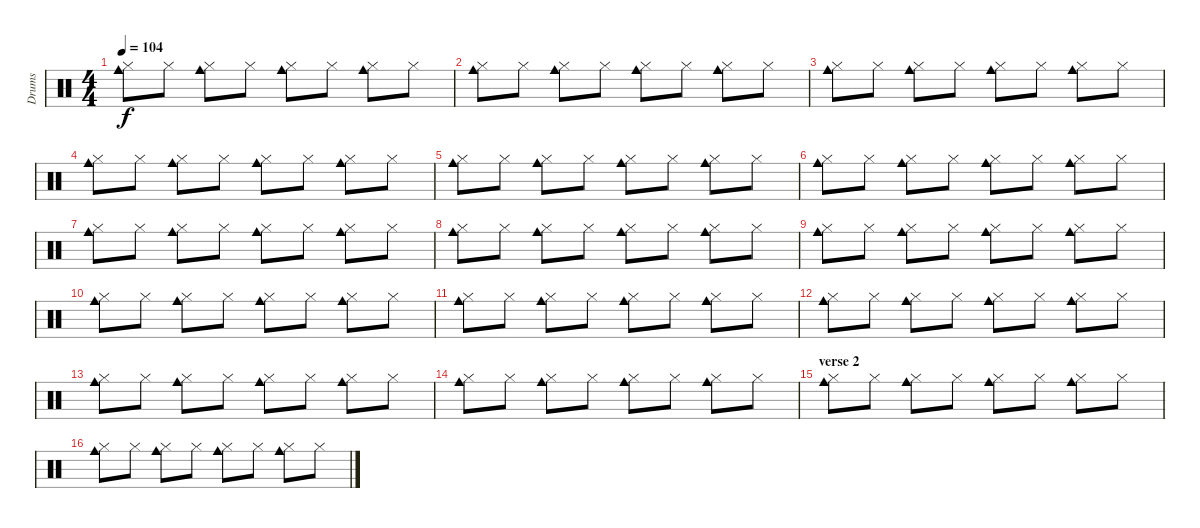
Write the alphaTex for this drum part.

\track ("Drums" "Drums") {instrument percussion}
\staff {score}
\articulation defaults
\ts (4 4)
\tempo 104
\clef neutral
\ks c
("Cowbell medium (hit)" "Hi-Hat (closed)").8{dy f} "Hi-Hat (closed)".8 ("Cowbell medium (hit)" "Hi-Hat (closed)").8 "Hi-Hat (closed)".8 ("Cowbell medium (hit)" "Hi-Hat (closed)").8 "Hi-Hat (closed)".8 ("Cowbell medium (hit)" "Hi-Hat (closed)").8 "Hi-Hat (closed)".8 |
("Cowbell medium (hit)" "Hi-Hat (closed)").8 "Hi-Hat (closed)".8 ("Cowbell medium (hit)" "Hi-Hat (closed)").8 "Hi-Hat (closed)".8 ("Cowbell medium (hit)" "Hi-Hat (closed)").8 "Hi-Hat (closed)".8 ("Cowbell medium (hit)" "Hi-Hat (closed)").8 "Hi-Hat (closed)".8 |
("Cowbell medium (hit)" "Hi-Hat (closed)").8 "Hi-Hat (closed)".8 ("Cowbell medium (hit)" "Hi-Hat (closed)").8 "Hi-Hat (closed)".8 ("Cowbell medium (hit)" "Hi-Hat (closed)").8 "Hi-Hat (closed)".8 ("Cowbell medium (hit)" "Hi-Hat (closed)").8 "Hi-Hat (closed)".8 |
("Cowbell medium (hit)" "Hi-Hat (closed)").8 "Hi-Hat (closed)".8 ("Cowbell medium (hit)" "Hi-Hat (closed)").8 "Hi-Hat (closed)".8 ("Cowbell medium (hit)" "Hi-Hat (closed)").8 "Hi-Hat (closed)".8 ("Cowbell medium (hit)" "Hi-Hat (closed)").8 "Hi-Hat (closed)".8 |
("Cowbell medium (hit)" "Hi-Hat (closed)").8 "Hi-Hat (closed)".8 ("Cowbell medium (hit)" "Hi-Hat (closed)").8 "Hi-Hat (closed)".8 ("Cowbell medium (hit)" "Hi-Hat (closed)").8 "Hi-Hat (closed)".8 ("Cowbell medium (hit)" "Hi-Hat (closed)").8 "Hi-Hat (closed)".8 |
("Cowbell medium (hit)" "Hi-Hat (closed)").8 "Hi-Hat (closed)".8 ("Cowbell medium (hit)" "Hi-Hat (closed)").8 "Hi-Hat (closed)".8 ("Cowbell medium (hit)" "Hi-Hat (closed)").8 "Hi-Hat (closed)".8 ("Cowbell medium (hit)" "Hi-Hat (closed)").8 "Hi-Hat (closed)".8 |
("Cowbell medium (hit)" "Hi-Hat (closed)").8 "Hi-Hat (closed)".8 ("Cowbell medium (hit)" "Hi-Hat (closed)").8 "Hi-Hat (closed)".8 ("Cowbell medium (hit)" "Hi-Hat (closed)").8 "Hi-Hat (closed)".8 ("Cowbell medium (hit)" "Hi-Hat (closed)").8 "Hi-Hat (closed)".8 |
("Cowbell medium (hit)" "Hi-Hat (closed)").8 "Hi-Hat (closed)".8 ("Cowbell medium (hit)" "Hi-Hat (closed)").8 "Hi-Hat (closed)".8 ("Cowbell medium (hit)" "Hi-Hat (closed)").8 "Hi-Hat (closed)".8 ("Cowbell medium (hit)" "Hi-Hat (closed)").8 "Hi-Hat (closed)".8 |
("Cowbell medium (hit)" "Hi-Hat (closed)").8 "Hi-Hat (closed)".8 ("Cowbell medium (hit)" "Hi-Hat (closed)").8 "Hi-Hat (closed)".8 ("Cowbell medium (hit)" "Hi-Hat (closed)").8 "Hi-Hat (closed)".8 ("Cowbell medium (hit)" "Hi-Hat (closed)").8 "Hi-Hat (closed)".8 |
("Cowbell medium (hit)" "Hi-Hat (closed)").8 "Hi-Hat (closed)".8 ("Cowbell medium (hit)" "Hi-Hat (closed)").8 "Hi-Hat (closed)".8 ("Cowbell medium (hit)" "Hi-Hat (closed)").8 "Hi-Hat (closed)".8 ("Cowbell medium (hit)" "Hi-Hat (closed)").8 "Hi-Hat (closed)".8 |
("Cowbell medium (hit)" "Hi-Hat (closed)").8 "Hi-Hat (closed)".8 ("Cowbell medium (hit)" "Hi-Hat (closed)").8 "Hi-Hat (closed)".8 ("Cowbell medium (hit)" "Hi-Hat (closed)").8 "Hi-Hat (closed)".8 ("Cowbell medium (hit)" "Hi-Hat (closed)").8 "Hi-Hat (closed)".8 |
("Cowbell medium (hit)" "Hi-Hat (closed)").8 "Hi-Hat (closed)".8 ("Cowbell medium (hit)" "Hi-Hat (closed)").8 "Hi-Hat (closed)".8 ("Cowbell medium (hit)" "Hi-Hat (closed)").8 "Hi-Hat (closed)".8 ("Cowbell medium (hit)" "Hi-Hat (closed)").8 "Hi-Hat (closed)".8 |
("Cowbell medium (hit)" "Hi-Hat (closed)").8 "Hi-Hat (closed)".8 ("Cowbell medium (hit)" "Hi-Hat (closed)").8 "Hi-Hat (closed)".8 ("Cowbell medium (hit)" "Hi-Hat (closed)").8 "Hi-Hat (closed)".8 ("Cowbell medium (hit)" "Hi-Hat (closed)").8 "Hi-Hat (closed)".8 |
("Cowbell medium (hit)" "Hi-Hat (closed)").8 "Hi-Hat (closed)".8 ("Cowbell medium (hit)" "Hi-Hat (closed)").8 "Hi-Hat (closed)".8 ("Cowbell medium (hit)" "Hi-Hat (closed)").8 "Hi-Hat (closed)".8 ("Cowbell medium (hit)" "Hi-Hat (closed)").8 "Hi-Hat (closed)".8 |
\section ("" "verse 2")
("Cowbell medium (hit)" "Hi-Hat (closed)").8 "Hi-Hat (closed)".8 ("Cowbell medium (hit)" "Hi-Hat (closed)").8 "Hi-Hat (closed)".8 ("Cowbell medium (hit)" "Hi-Hat (closed)").8 "Hi-Hat (closed)".8 ("Cowbell medium (hit)" "Hi-Hat (closed)").8 "Hi-Hat (closed)".8 |
("Cowbell medium (hit)" "Hi-Hat (closed)").8 "Hi-Hat (closed)".8 ("Cowbell medium (hit)" "Hi-Hat (closed)").8 "Hi-Hat (closed)".8 ("Cowbell medium (hit)" "Hi-Hat (closed)").8 "Hi-Hat (closed)".8 ("Cowbell medium (hit)" "Hi-Hat (closed)").8 "Hi-Hat (closed)".8
